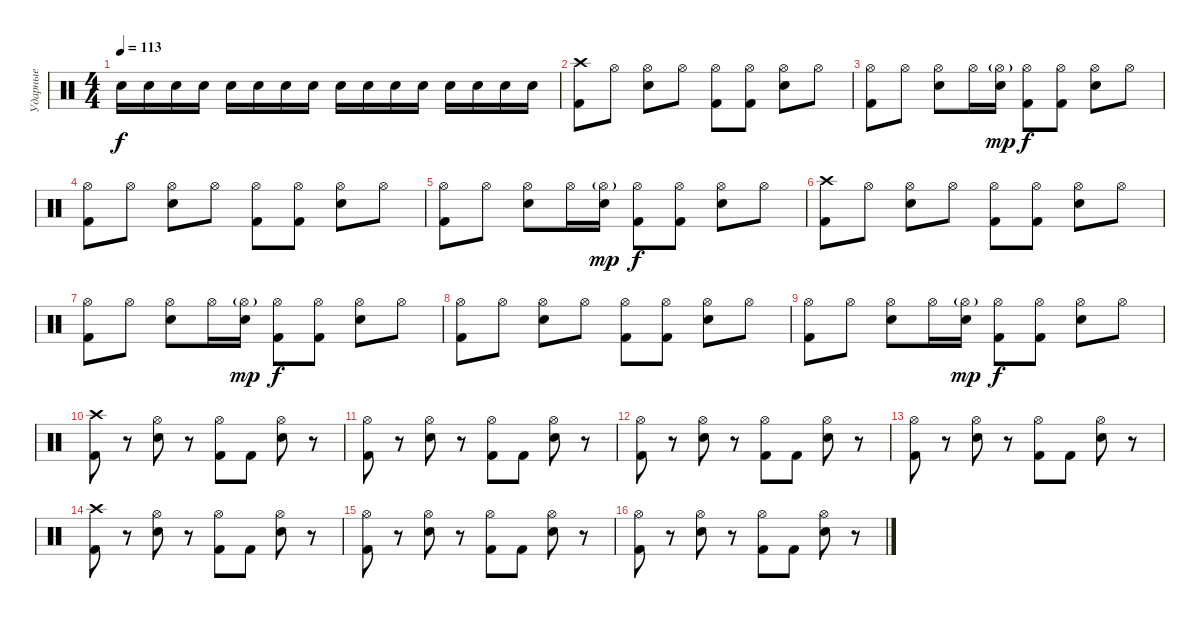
\track ("Ударные" "Ударные") {instrument percussion}
\staff {score}
\articulation defaults
\ts (4 4)
\tempo 113
\clef neutral
\ks c "Snare (hit) 2".16{dy f volume 9} "Snare (hit) 2".16 "Snare (hit) 2".16 "Snare (hit) 2".16 "Snare (hit) 2".16{volume 11} "Snare (hit) 2".16 "Snare (hit) 2".16 "Snare (hit) 2".16 "Snare (hit) 2".16{volume 13} "Snare (hit) 2".16 "Snare (hit) 2".16 "Snare (hit) 2".16 "Snare (hit) 2".16 "Snare (hit) 2".16 "Snare (hit) 2".16 "Snare (hit) 2".16
|
("Crash high (hit)" "Kick (hit) 2").8 "Hi-Hat (open)".8 ("Hi-Hat (open)" "Snare (hit) 2").8 "Hi-Hat (open)".8 ("Hi-Hat (open)" "Kick (hit) 2").8 ("Hi-Hat (open)" "Kick (hit) 2").8 ("Hi-Hat (open)" "Snare (hit) 2").8 "Hi-Hat (open)".8 |
("Hi-Hat (open)" "Kick (hit) 2").8 "Hi-Hat (open)".8 ("Hi-Hat (open)" "Snare (hit) 2").8 "Hi-Hat (open)".16 ("Hi-Hat (open)"{g} "Snare (hit) 2").16{dy mp} ("Hi-Hat (open)" "Kick (hit) 2").8{dy f} ("Hi-Hat (open)" "Kick (hit) 2").8 ("Hi-Hat (open)" "Snare (hit) 2").8 "Hi-Hat (open)".8 |
("Hi-Hat (open)" "Kick (hit) 2").8 "Hi-Hat (open)".8 ("Hi-Hat (open)" "Snare (hit) 2").8 "Hi-Hat (open)".8 ("Hi-Hat (open)" "Kick (hit) 2").8 ("Hi-Hat (open)" "Kick (hit) 2").8 ("Hi-Hat (open)" "Snare (hit) 2").8 "Hi-Hat (open)".8 |
("Hi-Hat (open)" "Kick (hit) 2").8 "Hi-Hat (open)".8 ("Hi-Hat (open)" "Snare (hit) 2").8 "Hi-Hat (open)".16 ("Hi-Hat (open)"{g} "Snare (hit) 2").16{dy mp} ("Hi-Hat (open)" "Kick (hit) 2").8{dy f} ("Hi-Hat (open)" "Kick (hit) 2").8 ("Hi-Hat (open)" "Snare (hit) 2").8 "Hi-Hat (open)".8 |
("Crash high (hit)" "Kick (hit) 2").8 "Hi-Hat (open)".8 ("Hi-Hat (open)" "Snare (hit) 2").8 "Hi-Hat (open)".8 ("Hi-Hat (open)" "Kick (hit) 2").8 ("Hi-Hat (open)" "Kick (hit) 2").8 ("Hi-Hat (open)" "Snare (hit) 2").8 "Hi-Hat (open)".8 |
("Hi-Hat (open)" "Kick (hit) 2").8 "Hi-Hat (open)".8 ("Hi-Hat (open)" "Snare (hit) 2").8 "Hi-Hat (open)".16 ("Hi-Hat (open)"{g} "Snare (hit) 2").16{dy mp} ("Hi-Hat (open)" "Kick (hit) 2").8{dy f} ("Hi-Hat (open)" "Kick (hit) 2").8 ("Hi-Hat (open)" "Snare (hit) 2").8 "Hi-Hat (open)".8 |
("Hi-Hat (open)" "Kick (hit) 2").8 "Hi-Hat (open)".8 ("Hi-Hat (open)" "Snare (hit) 2").8 "Hi-Hat (open)".8 ("Hi-Hat (open)" "Kick (hit) 2").8 ("Hi-Hat (open)" "Kick (hit) 2").8 ("Hi-Hat (open)" "Snare (hit) 2").8 "Hi-Hat (open)".8 |
("Hi-Hat (open)" "Kick (hit) 2").8 "Hi-Hat (open)".8 ("Hi-Hat (open)" "Snare (hit) 2").8 "Hi-Hat (open)".16 ("Hi-Hat (open)"{g} "Snare (hit) 2").16{dy mp} ("Hi-Hat (open)" "Kick (hit) 2").8{dy f} ("Hi-Hat (open)" "Kick (hit) 2").8 ("Hi-Hat (open)" "Snare (hit) 2").8 "Hi-Hat (open)".8 |
("Crash high (hit)" "Kick (hit) 2").8 r.8 ("Hi-Hat (open)" "Snare (hit) 2").8 r.8 ("Hi-Hat (open)" "Kick (hit) 2").8 "Kick (hit) 2".8 ("Hi-Hat (open)" "Snare (hit) 2").8 r.8 |
("Hi-Hat (open)" "Kick (hit) 2").8 r.8 ("Hi-Hat (open)" "Snare (hit) 2").8 r.8 ("Hi-Hat (open)" "Kick (hit) 2").8 "Kick (hit) 2".8 ("Hi-Hat (open)" "Snare (hit) 2").8 r.8 |
("Hi-Hat (open)" "Kick (hit) 2").8 r.8 ("Hi-Hat (open)" "Snare (hit) 2").8 r.8 ("Hi-Hat (open)" "Kick (hit) 2").8 "Kick (hit) 2".8 ("Hi-Hat (open)" "Snare (hit) 2").8 r.8 |
("Hi-Hat (open)" "Kick (hit) 2").8 r.8 ("Hi-Hat (open)" "Snare (hit) 2").8 r.8 ("Hi-Hat (open)" "Kick (hit) 2").8 "Kick (hit) 2".8 ("Hi-Hat (open)" "Snare (hit) 2").8 r.8 |
("Crash high (hit)" "Kick (hit) 2").8 r.8 ("Hi-Hat (open)" "Snare (hit) 2").8 r.8 ("Hi-Hat (open)" "Kick (hit) 2").8 "Kick (hit) 2".8 ("Hi-Hat (open)" "Snare (hit) 2").8 r.8 |
("Hi-Hat (open)" "Kick (hit) 2").8 r.8 ("Hi-Hat (open)" "Snare (hit) 2").8 r.8 ("Hi-Hat (open)" "Kick (hit) 2").8 "Kick (hit) 2".8 ("Hi-Hat (open)" "Snare (hit) 2").8 r.8 |
("Hi-Hat (open)" "Kick (hit) 2").8 r.8 ("Hi-Hat (open)" "Snare (hit) 2").8 r.8 ("Hi-Hat (open)" "Kick (hit) 2").8 "Kick (hit) 2".8 ("Hi-Hat (open)" "Snare (hit) 2").8 r.8
